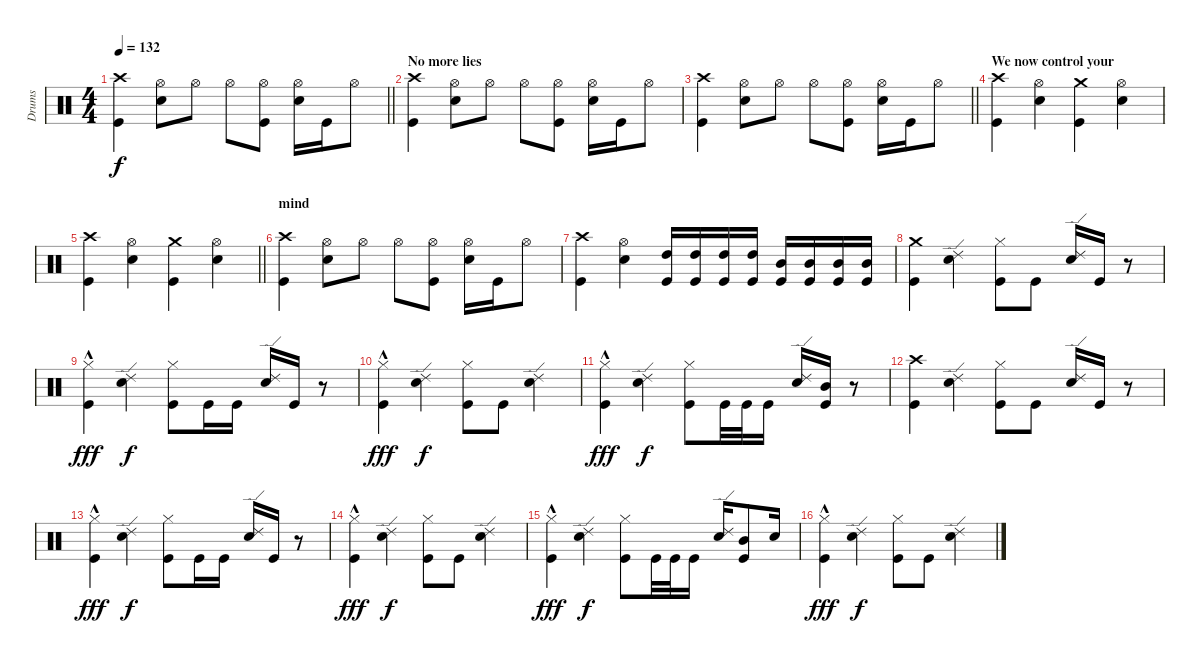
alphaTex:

\track ("Drums" "Drums") {instrument percussion}
\staff {score}
\articulation defaults
\ts (4 4)
\tempo 132
\clef neutral
\barLineRight lightlight
\ks c
("Crash high (hit)" "Kick (hit)").4{dy f} ("Hi-Hat (open)" "Snare (hit) 2").8 "Hi-Hat (open)".8 "Hi-Hat (open)".8 ("Hi-Hat (open)" "Kick (hit)").8 ("Hi-Hat (open)" "Snare (hit) 2").16 "Kick (hit)".16 "Hi-Hat (open)".8 |
\section ("" "No more lies")
("Crash high (hit)" "Kick (hit)").4 ("Hi-Hat (open)" "Snare (hit) 2").8 "Hi-Hat (open)".8 "Hi-Hat (open)".8 ("Hi-Hat (open)" "Kick (hit)").8 ("Hi-Hat (open)" "Snare (hit) 2").16 "Kick (hit)".16 "Hi-Hat (open)".8 |
\barLineRight lightlight
("Crash high (hit)" "Kick (hit)").4 ("Hi-Hat (open)" "Snare (hit) 2").8 "Hi-Hat (open)".8 "Hi-Hat (open)".8 ("Hi-Hat (open)" "Kick (hit)").8 ("Hi-Hat (open)" "Snare (hit) 2").16 "Kick (hit)".16 "Hi-Hat (open)".8 |
\section ("" "We now control your")
("Crash high (hit)" "Kick (hit)").4 ("Hi-Hat (open)" "Snare (hit) 2").4 ("Crash medium (hit)" "Kick (hit)").4 ("Hi-Hat (open)" "Snare (hit) 2").4 |
\barLineRight lightlight
("Crash high (hit)" "Kick (hit)").4 ("Hi-Hat (open)" "Snare (hit) 2").4 ("Crash medium (hit)" "Kick (hit)").4 ("Hi-Hat (open)" "Snare (hit) 2").4 |
\section ("" "mind")
("Crash high (hit)" "Kick (hit)").4 ("Hi-Hat (open)" "Snare (hit) 2").8 "Hi-Hat (open)".8 "Hi-Hat (open)".8 ("Hi-Hat (open)" "Kick (hit)").8 ("Hi-Hat (open)" "Snare (hit) 2").16 "Kick (hit)".16 "Hi-Hat (open)".8 |
("Crash high (hit)" "Kick (hit)").4 ("Hi-Hat (open)" "Snare (hit) 2").4 ("High Tom (hit)" "Kick (hit)").16 ("High Tom (hit)" "Kick (hit)").16 ("High Tom (hit)" "Kick (hit)").16 ("High Tom (hit)" "Kick (hit)").16 ("Mid Tom (hit)" "Kick (hit)").16 ("Mid Tom (hit)" "Kick (hit)").16 ("Mid Tom (hit)" "Kick (hit)").16 ("Mid Tom (hit)" "Kick (hit)").16 |
("Crash medium (hit)" "Kick (hit)").4 ("Ride (edge) 2" "Snare (hit) 2").4 ("Hi-Hat (closed)" "Kick (hit)").8 "Kick (hit)".8 ("Ride (edge) 2" "Snare (hit) 2").16 "Kick (hit)".16 r.8 |
("Hi-Hat (closed)"{hac} "Kick (hit)").4{dy fff} ("Ride (edge) 2" "Snare (hit) 2").4{dy f} ("Hi-Hat (closed)" "Kick (hit)").8 "Kick (hit)".16 "Kick (hit)".16 ("Ride (edge) 2" "Snare (hit) 2").16 "Kick (hit)".16 r.8 |
("Hi-Hat (closed)"{hac} "Kick (hit)").4{dy fff} ("Ride (edge) 2" "Snare (hit) 2").4{dy f} ("Hi-Hat (closed)" "Kick (hit)").8 "Kick (hit)".8 ("Ride (edge) 2" "Snare (hit) 2").4 |
("Hi-Hat (closed)"{hac} "Kick (hit)").4{dy fff} ("Ride (edge) 2" "Snare (hit) 2").4{dy f} ("Hi-Hat (closed)" "Kick (hit)").8 "Kick (hit)".32 "Kick (hit)".32 "Kick (hit)".16 ("Ride (edge) 2" "Snare (hit) 2").16 ("Mid Tom (hit)" "Kick (hit)").16 r.8 |
("Crash high (hit)" "Kick (hit)").4 ("Ride (edge) 2" "Snare (hit) 2").4 ("Hi-Hat (closed)" "Kick (hit)").8 "Kick (hit)".8 ("Ride (edge) 2" "Snare (hit) 2").16 "Kick (hit)".16 r.8 |
("Hi-Hat (closed)"{hac} "Kick (hit)").4{dy fff} ("Ride (edge) 2" "Snare (hit) 2").4{dy f} ("Hi-Hat (closed)" "Kick (hit)").8 "Kick (hit)".16 "Kick (hit)".16 ("Ride (edge) 2" "Snare (hit) 2").16 "Kick (hit)".16 r.8 |
("Hi-Hat (closed)"{hac} "Kick (hit)").4{dy fff} ("Ride (edge) 2" "Snare (hit) 2").4{dy f} ("Hi-Hat (closed)" "Kick (hit)").8 "Kick (hit)".8 ("Ride (edge) 2" "Snare (hit) 2").4 |
("Hi-Hat (closed)"{hac} "Kick (hit)").4{dy fff} ("Ride (edge) 2" "Snare (hit) 2").4{dy f} ("Hi-Hat (closed)" "Kick (hit)").8 "Kick (hit)".32 "Kick (hit)".32 "Kick (hit)".16 ("Ride (edge) 2" "Snare (hit) 2").16 ("Mid Tom (hit)" "Kick (hit)").8 "Snare (hit) 2".16 |
("Hi-Hat (closed)"{hac} "Kick (hit)").4{dy fff} ("Ride (edge) 2" "Snare (hit) 2").4{dy f} ("Hi-Hat (closed)" "Kick (hit)").8 "Kick (hit)".8 ("Ride (edge) 2" "Snare (hit) 2").4
